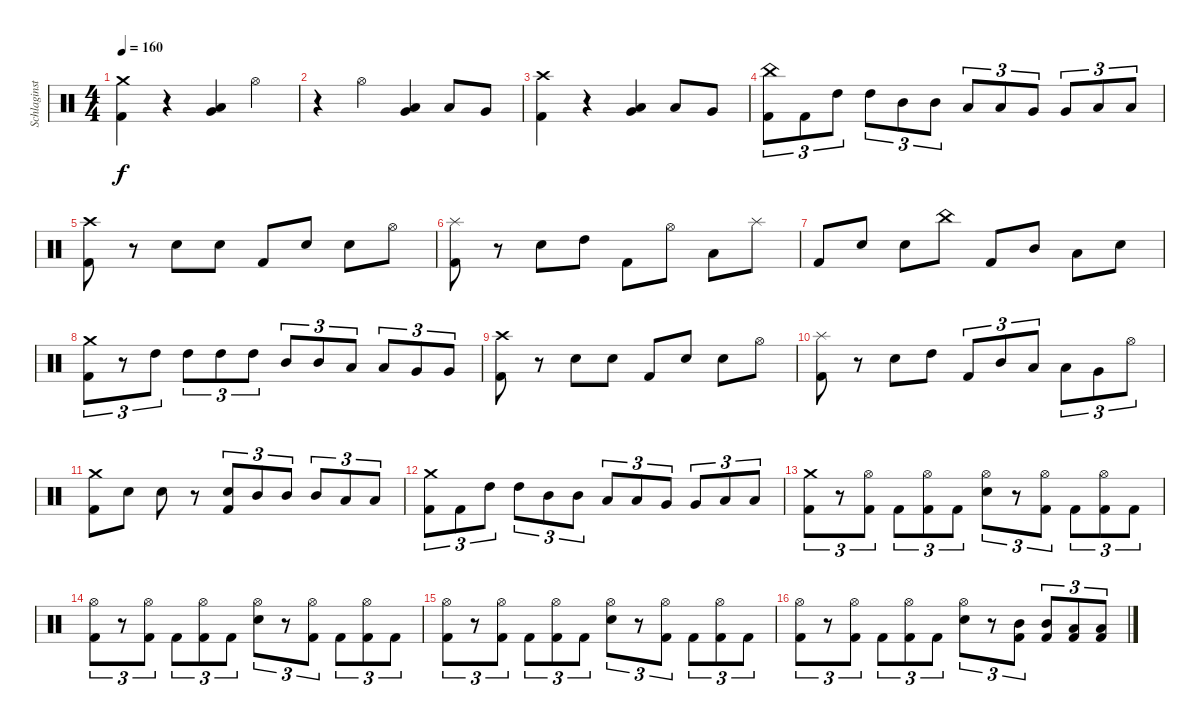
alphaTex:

\track ("Schlaginstrumente - Auswahl" "Schlaginst") {instrument percussion}
\staff {score}
\articulation defaults
\ts (4 4)
\tempo 160
\clef neutral
\ks c
("Crash medium (hit)" "Kick (hit) 2").4{dy f} r.4 ("Very Low Tom (hit)" "Low Floor Tom (hit)").4 "Hi-Hat (open)".4 |
r.4 "Hi-Hat (open)".4 ("Very Low Tom (hit)" "Low Floor Tom (hit)").4 "Low Floor Tom (hit)".8 "Very Low Tom (hit)".8 |
("Crash high (hit)" "Kick (hit) 2").4 r.4 ("Very Low Tom (hit)" "Low Floor Tom (hit)").4 "Low Floor Tom (hit)".8 "Very Low Tom (hit)".8 |
("China (hit)" "Kick (hit) 2").8{tu (3 2)} "Kick (hit) 2".8{tu (3 2)} "High Tom (hit)".8{tu (3 2)} "High Tom (hit)".8{tu (3 2)} "Mid Tom (hit)".8{tu (3 2)} "Mid Tom (hit)".8{tu (3 2)} "Low Tom (hit)".8{tu (3 2)} "Low Tom (hit)".8{tu (3 2)} "Very Low Tom (hit)".8{tu (3 2)} "Very Low Tom (hit)".8{tu (3 2)} "Low Floor Tom (hit)".8{tu (3 2)} "Low Floor Tom (hit)".8{tu (3 2)} |
("Crash high (hit)" "Kick (hit) 2").8 r.8 "Snare (hit) 2".8 "Snare (hit) 2".8 "Kick (hit) 2".8 "Snare (hit) 2".8 "Snare (hit) 2".8 "Hi-Hat (open)".8 |
("Splash (hit)" "Kick (hit) 2").8 r.8 "Snare (hit) 2".8 "High Tom (hit)".8 "Kick (hit) 2".8 "Hi-Hat (open)".8 "Low Tom (hit)".8 "Splash (hit)".8 |
"Kick (hit) 2".8 "Snare (hit) 2".8 "Snare (hit) 2".8 "China (hit)".8 "Kick (hit) 2".8 "Mid Tom (hit)".8 "Low Tom (hit)".8 "Snare (hit) 2".8 |
("Crash medium (hit)" "Kick (hit) 2").8{tu (3 2)} r.8{tu (3 2)} "High Tom (hit)".8{tu (3 2)} "High Tom (hit)".8{tu (3 2)} "High Tom (hit)".8{tu (3 2)} "High Tom (hit)".8{tu (3 2)} "Mid Tom (hit)".8{tu (3 2)} "Mid Tom (hit)".8{tu (3 2)} "Low Tom (hit)".8{tu (3 2)} "Low Tom (hit)".8{tu (3 2)} "Very Low Tom (hit)".8{tu (3 2)} "Very Low Tom (hit)".8{tu (3 2)} |
("Crash high (hit)" "Kick (hit) 2").8 r.8 "Snare (hit) 2".8 "Snare (hit) 2".8 "Kick (hit) 2".8 "Snare (hit) 2".8 "Snare (hit) 2".8 "Hi-Hat (open)".8 |
("Splash (hit)" "Kick (hit) 2").8 r.8 "Snare (hit) 2".8 "High Tom (hit)".8 "Kick (hit) 2".8{tu (3 2)} "Mid Tom (hit)".8{tu (3 2)} "Low Tom (hit)".8{tu (3 2)} "Low Tom (hit)".8{tu (3 2)} "Very Low Tom (hit)".8{tu (3 2)} "Hi-Hat (open)".8{tu (3 2)} |
("Crash medium (hit)" "Kick (hit) 2").8 "Snare (hit) 2".8 "Snare (hit) 2".8 r.8 ("Snare (hit) 2" "Kick (hit) 2").8{tu (3 2)} "Mid Tom (hit)".8{tu (3 2)} "Mid Tom (hit)".8{tu (3 2)} "Mid Tom (hit)".8{tu (3 2)} "Low Tom (hit)".8{tu (3 2)} "Low Tom (hit)".8{tu (3 2)} |
("Crash medium (hit)" "Kick (hit) 2").8{tu (3 2)} "Kick (hit) 2".8{tu (3 2)} "High Tom (hit)".8{tu (3 2)} "High Tom (hit)".8{tu (3 2)} "Mid Tom (hit)".8{tu (3 2)} "Mid Tom (hit)".8{tu (3 2)} "Low Tom (hit)".8{tu (3 2)} "Low Tom (hit)".8{tu (3 2)} "Very Low Tom (hit)".8{tu (3 2)} "Very Low Tom (hit)".8{tu (3 2)} "Low Floor Tom (hit)".8{tu (3 2)} "Low Floor Tom (hit)".8{tu (3 2)} |
("Crash medium (hit)" "Kick (hit) 2").8{tu (3 2)} r.8{tu (3 2)} ("Hi-Hat (open)" "Kick (hit) 2").8{tu (3 2)} "Kick (hit) 2".8{tu (3 2)} ("Hi-Hat (open)" "Kick (hit) 2").8{tu (3 2)} "Kick (hit) 2".8{tu (3 2)} ("Hi-Hat (open)" "Snare (hit) 2").8{tu (3 2)} r.8{tu (3 2)} ("Hi-Hat (open)" "Kick (hit) 2").8{tu (3 2)} "Kick (hit) 2".8{tu (3 2)} ("Hi-Hat (open)" "Kick (hit) 2").8{tu (3 2)} "Kick (hit) 2".8{tu (3 2)} |
("Hi-Hat (open)" "Kick (hit) 2").8{tu (3 2)} r.8{tu (3 2)} ("Hi-Hat (open)" "Kick (hit) 2").8{tu (3 2)} "Kick (hit) 2".8{tu (3 2)} ("Hi-Hat (open)" "Kick (hit) 2").8{tu (3 2)} "Kick (hit) 2".8{tu (3 2)} ("Hi-Hat (open)" "Snare (hit) 2").8{tu (3 2)} r.8{tu (3 2)} ("Hi-Hat (open)" "Kick (hit) 2").8{tu (3 2)} "Kick (hit) 2".8{tu (3 2)} ("Hi-Hat (open)" "Kick (hit) 2").8{tu (3 2)} "Kick (hit) 2".8{tu (3 2)} |
("Hi-Hat (open)" "Kick (hit) 2").8{tu (3 2)} r.8{tu (3 2)} ("Hi-Hat (open)" "Kick (hit) 2").8{tu (3 2)} "Kick (hit) 2".8{tu (3 2)} ("Hi-Hat (open)" "Kick (hit) 2").8{tu (3 2)} "Kick (hit) 2".8{tu (3 2)} ("Hi-Hat (open)" "Snare (hit) 2").8{tu (3 2)} r.8{tu (3 2)} ("Hi-Hat (open)" "Kick (hit) 2").8{tu (3 2)} "Kick (hit) 2".8{tu (3 2)} ("Hi-Hat (open)" "Kick (hit) 2").8{tu (3 2)} "Kick (hit) 2".8{tu (3 2)} |
("Hi-Hat (open)" "Kick (hit) 2").8{tu (3 2)} r.8{tu (3 2)} ("Hi-Hat (open)" "Kick (hit) 2").8{tu (3 2)} "Kick (hit) 2".8{tu (3 2)} ("Hi-Hat (open)" "Kick (hit) 2").8{tu (3 2)} "Kick (hit) 2".8{tu (3 2)} ("Hi-Hat (open)" "Snare (hit) 2").8{tu (3 2)} r.8{tu (3 2)} ("Mid Tom (hit)" "Kick (hit) 2").8{tu (3 2)} ("Mid Tom (hit)" "Kick (hit) 2").8{tu (3 2)} ("Low Tom (hit)" "Kick (hit) 2").8{tu (3 2)} ("Low Tom (hit)" "Kick (hit) 2").8{tu (3 2)}
